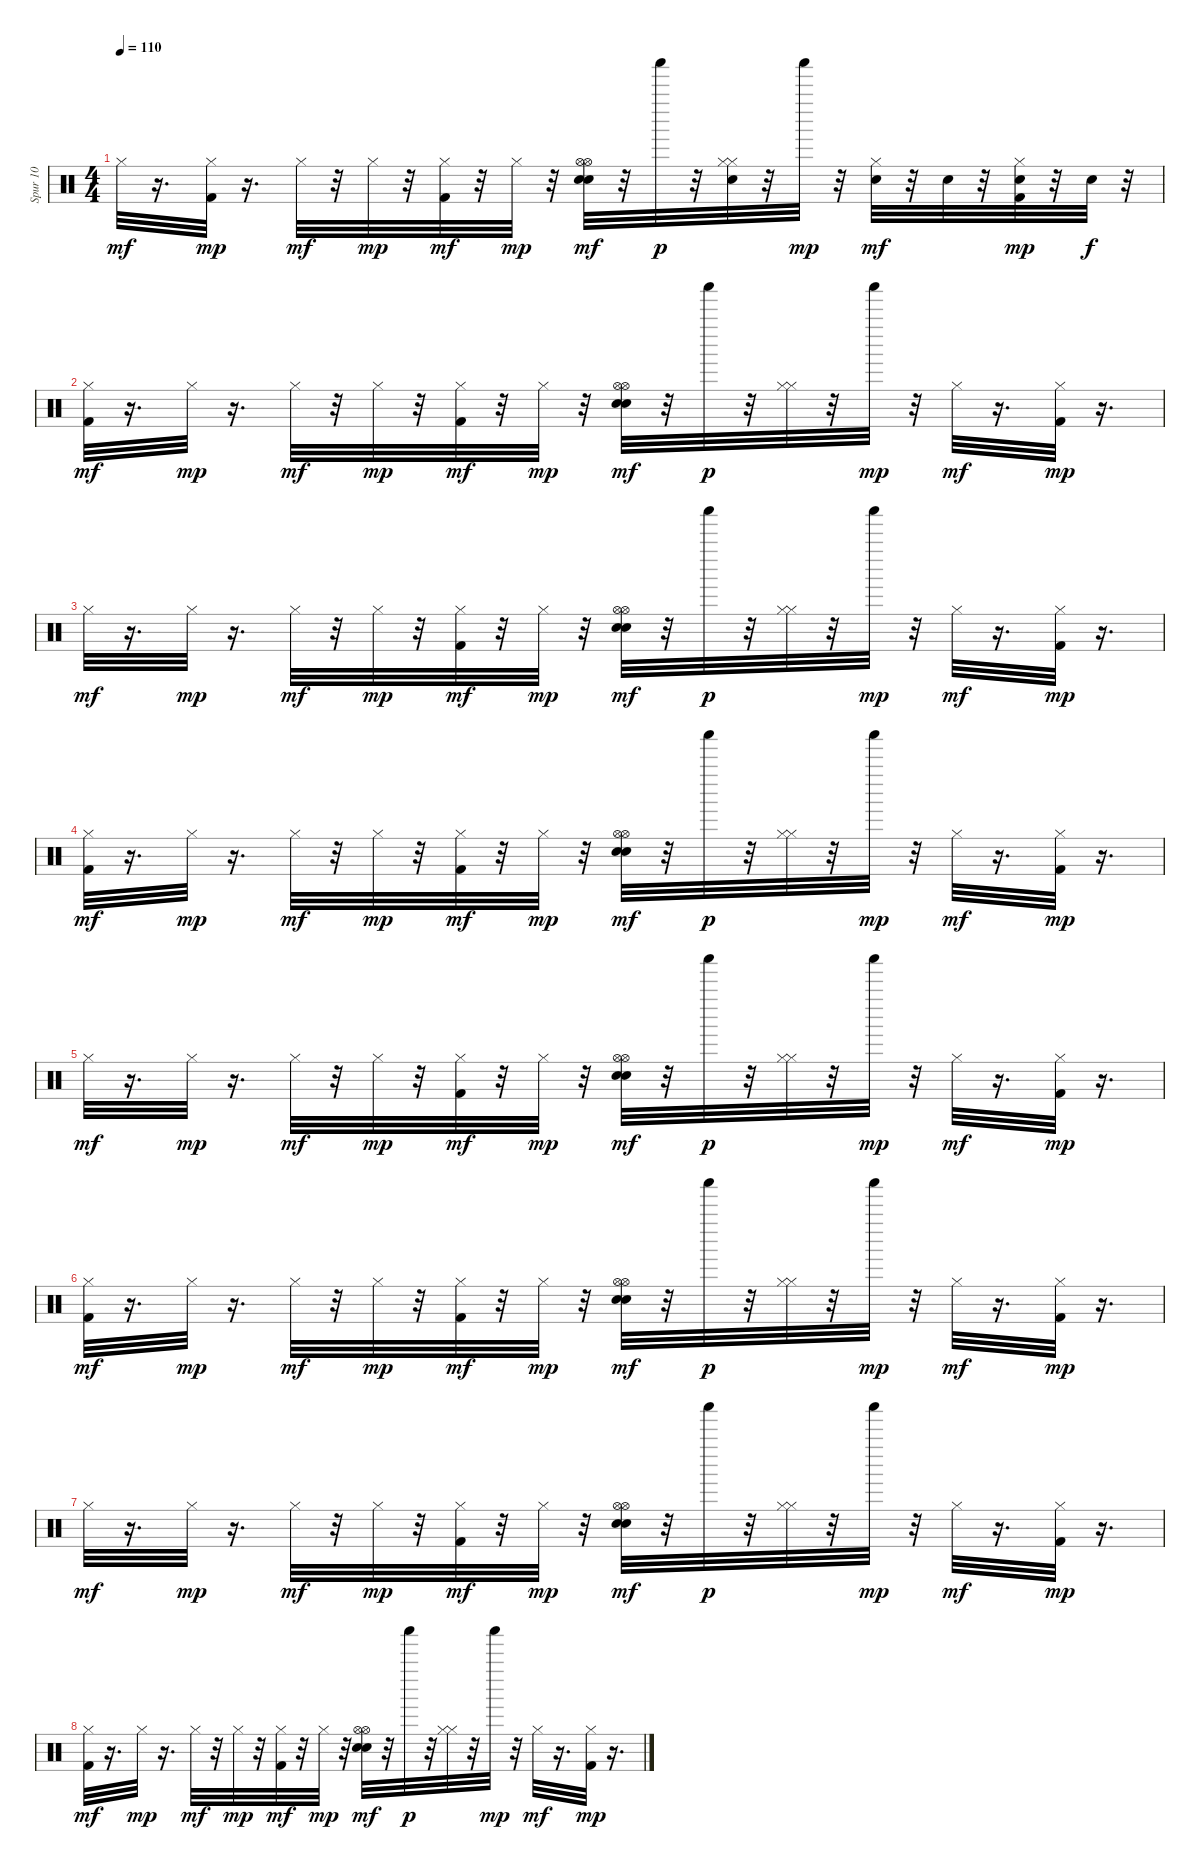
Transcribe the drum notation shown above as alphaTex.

\track ("Spur 10" "Spur 10") {instrument percussion}
\staff {score}
\articulation defaults
\ts (4 4)
\tempo 110
\clef neutral
\ks c "Hi-Hat (closed)".32{dy mf}
r.16{d} ("Kick (hit) 2" "Hi-Hat (closed)").32{dy mp} r.16{d} "Hi-Hat (closed)".32{dy mf} r.32 "Hi-Hat (closed)".32{dy mp} r.32 ("Kick (hit) 2" "Hi-Hat (closed)").32{dy mf} r.32 "Hi-Hat (closed)".32{dy mp} r.32 ("Hi-Hat (open)" "Snare (hit) 2" "Electric Snare (hit)" "Hi-Hat (open)").32{dy mf} r.32 "Shaker (hit)".32{dy p} r.32 ("Snare (hit) 2" "Hi-Hat (closed)" "Hi-Hat (closed)").32 r.32 "Shaker (hit)".32{dy mp} r.32 ("Snare (hit) 2" "Hi-Hat (closed)").32{dy mf} r.32 "Snare (hit) 2".32 r.32 ("Kick (hit) 2" "Snare (hit) 2" "Hi-Hat (closed)").32{dy mp} r.32 "Snare (hit) 2".32{dy f} r.32 |
("Kick (hit) 2" "Hi-Hat (closed)").32{dy mf} r.16{d} "Hi-Hat (closed)".32{dy mp} r.16{d} "Hi-Hat (closed)".32{dy mf} r.32 "Hi-Hat (closed)".32{dy mp} r.32 ("Kick (hit) 2" "Hi-Hat (closed)").32{dy mf} r.32 "Hi-Hat (closed)".32{dy mp} r.32 ("Hi-Hat (open)" "Snare (hit) 2" "Electric Snare (hit)" "Hi-Hat (open)").32{dy mf} r.32 "Shaker (hit)".32{dy p} r.32 ("Hi-Hat (closed)" "Hi-Hat (closed)").32 r.32 "Shaker (hit)".32{dy mp} r.32 "Hi-Hat (closed)".32{dy mf} r.16{d} ("Kick (hit) 2" "Hi-Hat (closed)").32{dy mp} r.16{d} |
"Hi-Hat (closed)".32{dy mf} r.16{d} "Hi-Hat (closed)".32{dy mp} r.16{d} "Hi-Hat (closed)".32{dy mf} r.32 "Hi-Hat (closed)".32{dy mp} r.32 ("Kick (hit) 2" "Hi-Hat (closed)").32{dy mf} r.32 "Hi-Hat (closed)".32{dy mp} r.32 ("Hi-Hat (open)" "Snare (hit) 2" "Electric Snare (hit)" "Hi-Hat (open)").32{dy mf} r.32 "Shaker (hit)".32{dy p} r.32 ("Hi-Hat (closed)" "Hi-Hat (closed)").32 r.32 "Shaker (hit)".32{dy mp} r.32 "Hi-Hat (closed)".32{dy mf} r.16{d} ("Kick (hit) 2" "Hi-Hat (closed)").32{dy mp} r.16{d} |
("Kick (hit) 2" "Hi-Hat (closed)").32{dy mf} r.16{d} "Hi-Hat (closed)".32{dy mp} r.16{d} "Hi-Hat (closed)".32{dy mf} r.32 "Hi-Hat (closed)".32{dy mp} r.32 ("Kick (hit) 2" "Hi-Hat (closed)").32{dy mf} r.32 "Hi-Hat (closed)".32{dy mp} r.32 ("Hi-Hat (open)" "Snare (hit) 2" "Electric Snare (hit)" "Hi-Hat (open)").32{dy mf} r.32 "Shaker (hit)".32{dy p} r.32 ("Hi-Hat (closed)" "Hi-Hat (closed)").32 r.32 "Shaker (hit)".32{dy mp} r.32 "Hi-Hat (closed)".32{dy mf} r.16{d} ("Kick (hit) 2" "Hi-Hat (closed)").32{dy mp} r.16{d} |
"Hi-Hat (closed)".32{dy mf} r.16{d} "Hi-Hat (closed)".32{dy mp} r.16{d} "Hi-Hat (closed)".32{dy mf} r.32 "Hi-Hat (closed)".32{dy mp} r.32 ("Kick (hit) 2" "Hi-Hat (closed)").32{dy mf} r.32 "Hi-Hat (closed)".32{dy mp} r.32 ("Hi-Hat (open)" "Snare (hit) 2" "Electric Snare (hit)" "Hi-Hat (open)").32{dy mf} r.32 "Shaker (hit)".32{dy p} r.32 ("Hi-Hat (closed)" "Hi-Hat (closed)").32 r.32 "Shaker (hit)".32{dy mp} r.32 "Hi-Hat (closed)".32{dy mf} r.16{d} ("Kick (hit) 2" "Hi-Hat (closed)").32{dy mp} r.16{d} |
("Kick (hit) 2" "Hi-Hat (closed)").32{dy mf} r.16{d} "Hi-Hat (closed)".32{dy mp} r.16{d} "Hi-Hat (closed)".32{dy mf} r.32 "Hi-Hat (closed)".32{dy mp} r.32 ("Kick (hit) 2" "Hi-Hat (closed)").32{dy mf} r.32 "Hi-Hat (closed)".32{dy mp} r.32 ("Hi-Hat (open)" "Snare (hit) 2" "Electric Snare (hit)" "Hi-Hat (open)").32{dy mf} r.32 "Shaker (hit)".32{dy p} r.32 ("Hi-Hat (closed)" "Hi-Hat (closed)").32 r.32 "Shaker (hit)".32{dy mp} r.32 "Hi-Hat (closed)".32{dy mf} r.16{d} ("Kick (hit) 2" "Hi-Hat (closed)").32{dy mp} r.16{d} |
"Hi-Hat (closed)".32{dy mf} r.16{d} "Hi-Hat (closed)".32{dy mp} r.16{d} "Hi-Hat (closed)".32{dy mf} r.32 "Hi-Hat (closed)".32{dy mp} r.32 ("Kick (hit) 2" "Hi-Hat (closed)").32{dy mf} r.32 "Hi-Hat (closed)".32{dy mp} r.32 ("Hi-Hat (open)" "Snare (hit) 2" "Electric Snare (hit)" "Hi-Hat (open)").32{dy mf} r.32 "Shaker (hit)".32{dy p} r.32 ("Hi-Hat (closed)" "Hi-Hat (closed)").32 r.32 "Shaker (hit)".32{dy mp} r.32 "Hi-Hat (closed)".32{dy mf} r.16{d} ("Kick (hit) 2" "Hi-Hat (closed)").32{dy mp} r.16{d} |
("Kick (hit) 2" "Hi-Hat (closed)").32{dy mf} r.16{d} "Hi-Hat (closed)".32{dy mp} r.16{d} "Hi-Hat (closed)".32{dy mf} r.32 "Hi-Hat (closed)".32{dy mp} r.32 ("Kick (hit) 2" "Hi-Hat (closed)").32{dy mf} r.32 "Hi-Hat (closed)".32{dy mp} r.32 ("Hi-Hat (open)" "Snare (hit) 2" "Electric Snare (hit)" "Hi-Hat (open)").32{dy mf} r.32 "Shaker (hit)".32{dy p} r.32 ("Hi-Hat (closed)" "Hi-Hat (closed)").32 r.32 "Shaker (hit)".32{dy mp} r.32 "Hi-Hat (closed)".32{dy mf} r.16{d} ("Kick (hit) 2" "Hi-Hat (closed)").32{dy mp} r.16{d}
